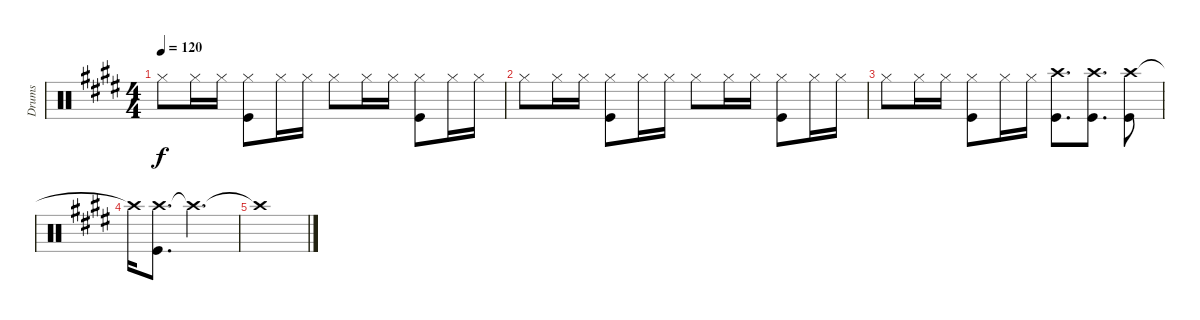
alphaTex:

\track ("Drums" "Drums") {instrument percussion}
\staff {score}
\articulation defaults
\ts (4 4)
\tempo 120
\clef neutral
\ks e "Hi-Hat (closed)".8{dy f} "Hi-Hat (closed)".16 "Hi-Hat (closed)".16
("Hi-Hat (closed)" "Kick (hit)").8 "Hi-Hat (closed)".16 "Hi-Hat (closed)".16 "Hi-Hat (closed)".8 "Hi-Hat (closed)".16 "Hi-Hat (closed)".16 ("Hi-Hat (closed)" "Kick (hit)").8 "Hi-Hat (closed)".16 "Hi-Hat (closed)".16 |
"Hi-Hat (closed)".8 "Hi-Hat (closed)".16 "Hi-Hat (closed)".16 ("Hi-Hat (closed)" "Kick (hit)").8 "Hi-Hat (closed)".16 "Hi-Hat (closed)".16 "Hi-Hat (closed)".8 "Hi-Hat (closed)".16 "Hi-Hat (closed)".16 ("Hi-Hat (closed)" "Kick (hit)").8 "Hi-Hat (closed)".16 "Hi-Hat (closed)".16 |
"Hi-Hat (closed)".8 "Hi-Hat (closed)".16 "Hi-Hat (closed)".16 ("Hi-Hat (closed)" "Kick (hit)").8 "Hi-Hat (closed)".16 "Hi-Hat (closed)".16 ("Crash high (hit)" "Kick (hit)").8{d} ("Crash high (hit)" "Kick (hit)").8{d} ("Crash high (hit)" "Kick (hit)").8 |
"Crash high (hit)"{t}.16 ("Crash high (hit)" "Kick (hit)").8{d} "Crash high (hit)"{t}.2{d} |
"Crash high (hit)"{t}.1
